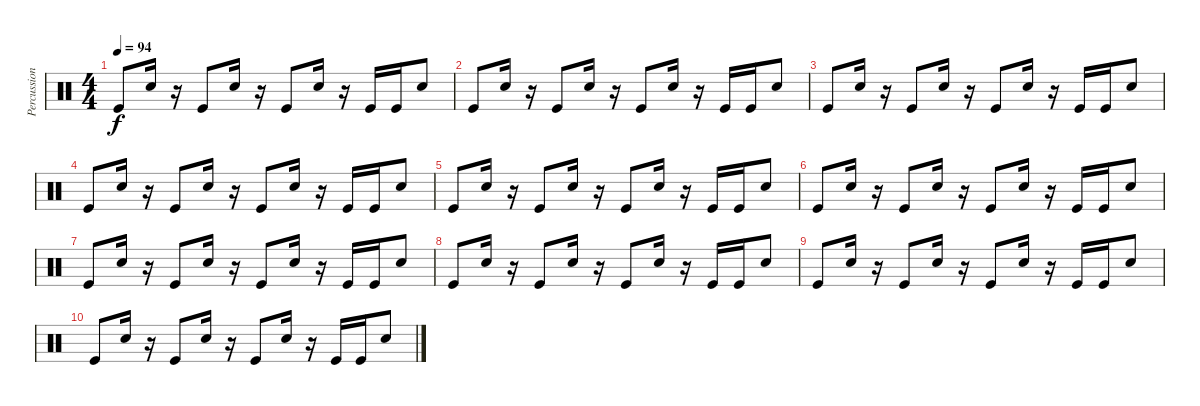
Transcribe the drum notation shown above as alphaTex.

\track ("Percussion" "Percussion") {instrument percussion}
\staff {score}
\articulation defaults
\ts (4 4)
\tempo 94
\clef neutral
\ks c "Kick (hit)".8{dy f} "Electric Snare (hit)".16
r.16 "Kick (hit)".8 "Electric Snare (hit)".16 r.16 "Kick (hit)".8 "Electric Snare (hit)".16 r.16 "Kick (hit)".16 "Kick (hit)".16 "Electric Snare (hit)".8 |
"Kick (hit)".8 "Electric Snare (hit)".16 r.16 "Kick (hit)".8 "Electric Snare (hit)".16 r.16 "Kick (hit)".8 "Electric Snare (hit)".16 r.16 "Kick (hit)".16 "Kick (hit)".16 "Electric Snare (hit)".8 |
"Kick (hit)".8 "Electric Snare (hit)".16 r.16 "Kick (hit)".8 "Electric Snare (hit)".16 r.16 "Kick (hit)".8 "Electric Snare (hit)".16 r.16 "Kick (hit)".16 "Kick (hit)".16 "Electric Snare (hit)".8 |
"Kick (hit)".8 "Electric Snare (hit)".16 r.16 "Kick (hit)".8 "Electric Snare (hit)".16 r.16 "Kick (hit)".8 "Electric Snare (hit)".16 r.16 "Kick (hit)".16 "Kick (hit)".16 "Electric Snare (hit)".8 |
"Kick (hit)".8 "Electric Snare (hit)".16 r.16 "Kick (hit)".8 "Electric Snare (hit)".16 r.16 "Kick (hit)".8 "Electric Snare (hit)".16 r.16 "Kick (hit)".16 "Kick (hit)".16 "Electric Snare (hit)".8 |
"Kick (hit)".8 "Electric Snare (hit)".16 r.16 "Kick (hit)".8 "Electric Snare (hit)".16 r.16 "Kick (hit)".8 "Electric Snare (hit)".16 r.16 "Kick (hit)".16 "Kick (hit)".16 "Electric Snare (hit)".8 |
"Kick (hit)".8 "Electric Snare (hit)".16 r.16 "Kick (hit)".8 "Electric Snare (hit)".16 r.16 "Kick (hit)".8 "Electric Snare (hit)".16 r.16 "Kick (hit)".16 "Kick (hit)".16 "Electric Snare (hit)".8 |
"Kick (hit)".8 "Electric Snare (hit)".16 r.16 "Kick (hit)".8 "Electric Snare (hit)".16 r.16 "Kick (hit)".8 "Electric Snare (hit)".16 r.16 "Kick (hit)".16 "Kick (hit)".16 "Electric Snare (hit)".8 |
"Kick (hit)".8 "Electric Snare (hit)".16 r.16 "Kick (hit)".8 "Electric Snare (hit)".16 r.16 "Kick (hit)".8 "Electric Snare (hit)".16 r.16 "Kick (hit)".16 "Kick (hit)".16 "Electric Snare (hit)".8 |
"Kick (hit)".8 "Electric Snare (hit)".16 r.16 "Kick (hit)".8 "Electric Snare (hit)".16 r.16 "Kick (hit)".8 "Electric Snare (hit)".16 r.16 "Kick (hit)".16 "Kick (hit)".16 "Electric Snare (hit)".8
